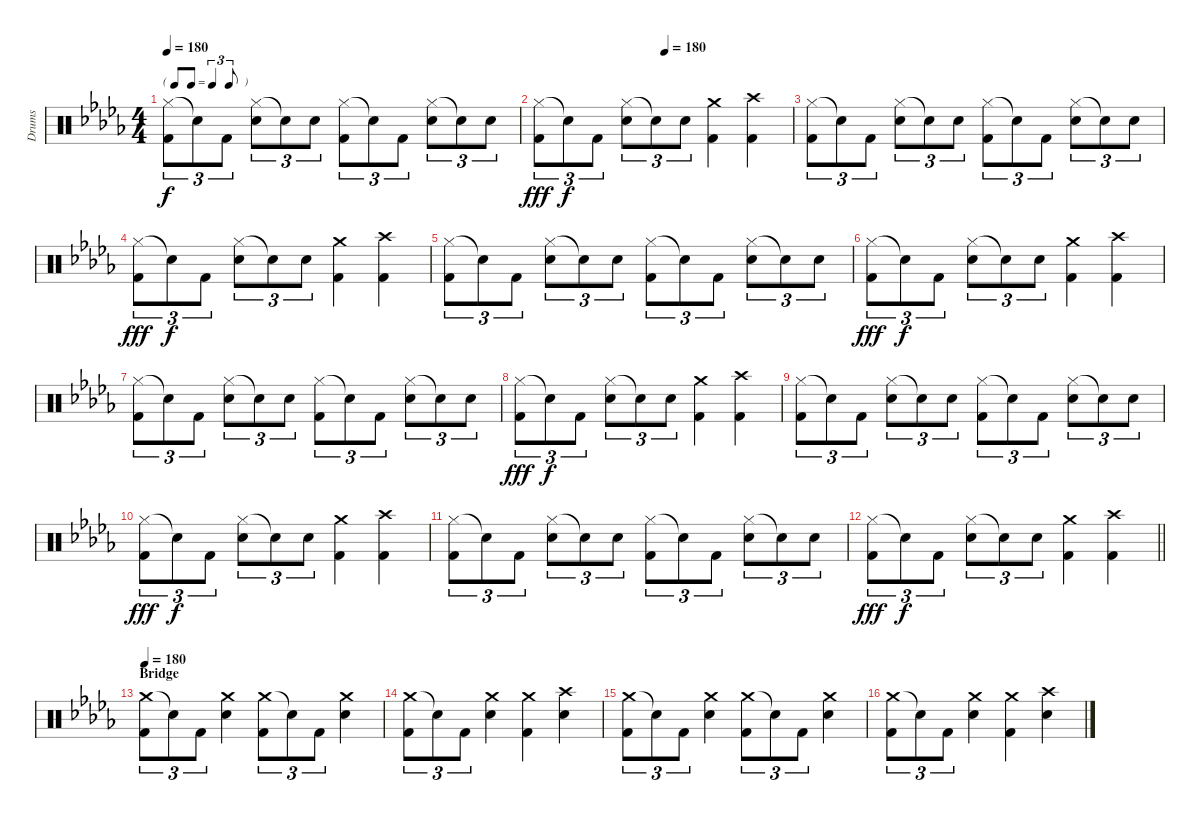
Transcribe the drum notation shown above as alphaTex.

\track ("Drums" "Drums") {instrument percussion}
\staff {score}
\articulation defaults
\ts (4 4)
\tf triplet8th
\tempo 180
\clef neutral
\ks db
("Hi-Hat (closed)" "Kick (hit) 2").8{tu (3 2) dy f} "Snare (hit)"{t}.8{tu (3 2)} "Kick (hit) 2".8{tu (3 2)} ("Hi-Hat (closed)" "Snare (hit) 2").8{tu (3 2)} "Snare (hit)"{t}.8{tu (3 2)} "Snare (hit) 2".8{tu (3 2)} ("Hi-Hat (closed)" "Kick (hit) 2").8{tu (3 2)} "Snare (hit)"{t}.8{tu (3 2)} "Kick (hit) 2".8{tu (3 2)} ("Hi-Hat (closed)" "Snare (hit) 2").8{tu (3 2)} "Snare (hit)"{t}.8{tu (3 2)} "Snare (hit) 2".8{tu (3 2)} |
\tempo (180 0.5)
("Hi-Hat (closed)" "Kick (hit) 2").8{tu (3 2) dy fff} "Snare (hit)"{t}.8{tu (3 2) dy f} "Kick (hit) 2".8{tu (3 2)} ("Hi-Hat (closed)" "Snare (hit) 2").8{tu (3 2)} "Snare (hit)"{t}.8{tu (3 2)} "Snare (hit) 2".8{tu (3 2)} ("Crash medium (hit)" "Kick (hit) 2").4 ("Crash high (hit)" "Kick (hit) 2").4 |
("Hi-Hat (closed)" "Kick (hit) 2").8{tu (3 2)} "Snare (hit)"{t}.8{tu (3 2)} "Kick (hit) 2".8{tu (3 2)} ("Hi-Hat (closed)" "Snare (hit) 2").8{tu (3 2)} "Snare (hit)"{t}.8{tu (3 2)} "Snare (hit) 2".8{tu (3 2)} ("Hi-Hat (closed)" "Kick (hit) 2").8{tu (3 2)} "Snare (hit)"{t}.8{tu (3 2)} "Kick (hit) 2".8{tu (3 2)} ("Hi-Hat (closed)" "Snare (hit) 2").8{tu (3 2)} "Snare (hit)"{t}.8{tu (3 2)} "Snare (hit) 2".8{tu (3 2)} |
("Hi-Hat (closed)" "Kick (hit) 2").8{tu (3 2) dy fff} "Snare (hit)"{t}.8{tu (3 2) dy f} "Kick (hit) 2".8{tu (3 2)} ("Hi-Hat (closed)" "Snare (hit) 2").8{tu (3 2)} "Snare (hit)"{t}.8{tu (3 2)} "Snare (hit) 2".8{tu (3 2)} ("Crash medium (hit)" "Kick (hit) 2").4 ("Crash high (hit)" "Kick (hit) 2").4 |
("Hi-Hat (closed)" "Kick (hit) 2").8{tu (3 2)} "Snare (hit)"{t}.8{tu (3 2)} "Kick (hit) 2".8{tu (3 2)} ("Hi-Hat (closed)" "Snare (hit) 2").8{tu (3 2)} "Snare (hit)"{t}.8{tu (3 2)} "Snare (hit) 2".8{tu (3 2)} ("Hi-Hat (closed)" "Kick (hit) 2").8{tu (3 2)} "Snare (hit)"{t}.8{tu (3 2)} "Kick (hit) 2".8{tu (3 2)} ("Hi-Hat (closed)" "Snare (hit) 2").8{tu (3 2)} "Snare (hit)"{t}.8{tu (3 2)} "Snare (hit) 2".8{tu (3 2)} |
("Hi-Hat (closed)" "Kick (hit) 2").8{tu (3 2) dy fff} "Snare (hit)"{t}.8{tu (3 2) dy f} "Kick (hit) 2".8{tu (3 2)} ("Hi-Hat (closed)" "Snare (hit) 2").8{tu (3 2)} "Snare (hit)"{t}.8{tu (3 2)} "Snare (hit) 2".8{tu (3 2)} ("Crash medium (hit)" "Kick (hit) 2").4 ("Crash high (hit)" "Kick (hit) 2").4 |
("Hi-Hat (closed)" "Kick (hit) 2").8{tu (3 2)} "Snare (hit)"{t}.8{tu (3 2)} "Kick (hit) 2".8{tu (3 2)} ("Hi-Hat (closed)" "Snare (hit) 2").8{tu (3 2)} "Snare (hit)"{t}.8{tu (3 2)} "Snare (hit) 2".8{tu (3 2)} ("Hi-Hat (closed)" "Kick (hit) 2").8{tu (3 2)} "Snare (hit)"{t}.8{tu (3 2)} "Kick (hit) 2".8{tu (3 2)} ("Hi-Hat (closed)" "Snare (hit) 2").8{tu (3 2)} "Snare (hit)"{t}.8{tu (3 2)} "Snare (hit) 2".8{tu (3 2)} |
("Hi-Hat (closed)" "Kick (hit) 2").8{tu (3 2) dy fff} "Snare (hit)"{t}.8{tu (3 2) dy f} "Kick (hit) 2".8{tu (3 2)} ("Hi-Hat (closed)" "Snare (hit) 2").8{tu (3 2)} "Snare (hit)"{t}.8{tu (3 2)} "Snare (hit) 2".8{tu (3 2)} ("Crash medium (hit)" "Kick (hit) 2").4 ("Crash high (hit)" "Kick (hit) 2").4 |
("Hi-Hat (closed)" "Kick (hit) 2").8{tu (3 2)} "Snare (hit)"{t}.8{tu (3 2)} "Kick (hit) 2".8{tu (3 2)} ("Hi-Hat (closed)" "Snare (hit) 2").8{tu (3 2)} "Snare (hit)"{t}.8{tu (3 2)} "Snare (hit) 2".8{tu (3 2)} ("Hi-Hat (closed)" "Kick (hit) 2").8{tu (3 2)} "Snare (hit)"{t}.8{tu (3 2)} "Kick (hit) 2".8{tu (3 2)} ("Hi-Hat (closed)" "Snare (hit) 2").8{tu (3 2)} "Snare (hit)"{t}.8{tu (3 2)} "Snare (hit) 2".8{tu (3 2)} |
("Hi-Hat (closed)" "Kick (hit) 2").8{tu (3 2) dy fff} "Snare (hit)"{t}.8{tu (3 2) dy f} "Kick (hit) 2".8{tu (3 2)} ("Hi-Hat (closed)" "Snare (hit) 2").8{tu (3 2)} "Snare (hit)"{t}.8{tu (3 2)} "Snare (hit) 2".8{tu (3 2)} ("Crash medium (hit)" "Kick (hit) 2").4 ("Crash high (hit)" "Kick (hit) 2").4 |
("Hi-Hat (closed)" "Kick (hit) 2").8{tu (3 2)} "Snare (hit)"{t}.8{tu (3 2)} "Kick (hit) 2".8{tu (3 2)} ("Hi-Hat (closed)" "Snare (hit) 2").8{tu (3 2)} "Snare (hit)"{t}.8{tu (3 2)} "Snare (hit) 2".8{tu (3 2)} ("Hi-Hat (closed)" "Kick (hit) 2").8{tu (3 2)} "Snare (hit)"{t}.8{tu (3 2)} "Kick (hit) 2".8{tu (3 2)} ("Hi-Hat (closed)" "Snare (hit) 2").8{tu (3 2)} "Snare (hit)"{t}.8{tu (3 2)} "Snare (hit) 2".8{tu (3 2)} |
\barLineRight lightlight
("Hi-Hat (closed)" "Kick (hit) 2").8{tu (3 2) dy fff} "Snare (hit)"{t}.8{tu (3 2) dy f} "Kick (hit) 2".8{tu (3 2)} ("Hi-Hat (closed)" "Snare (hit) 2").8{tu (3 2)} "Snare (hit)"{t}.8{tu (3 2)} "Snare (hit) 2".8{tu (3 2)} ("Crash medium (hit)" "Kick (hit) 2").4 ("Crash high (hit)" "Kick (hit) 2").4 |
\section ("" "Bridge")
\tempo 180
("Crash medium (hit)" "Kick (hit) 2").8{tu (3 2)} "Snare (hit)"{t}.8{tu (3 2)} "Kick (hit) 2".8{tu (3 2)} ("Crash medium (hit)" "Snare (hit) 2").4 ("Crash medium (hit)" "Kick (hit) 2").8{tu (3 2)} "Snare (hit)"{t}.8{tu (3 2)} "Kick (hit) 2".8{tu (3 2)} ("Crash medium (hit)" "Snare (hit) 2").4 |
("Crash medium (hit)" "Kick (hit) 2").8{tu (3 2)} "Snare (hit)"{t}.8{tu (3 2)} "Kick (hit) 2".8{tu (3 2)} ("Crash medium (hit)" "Snare (hit) 2").4 ("Crash medium (hit)" "Kick (hit) 2").4 ("Crash high (hit)" "Snare (hit) 2").4 |
("Crash medium (hit)" "Kick (hit) 2").8{tu (3 2)} "Snare (hit)"{t}.8{tu (3 2)} "Kick (hit) 2".8{tu (3 2)} ("Crash medium (hit)" "Snare (hit) 2").4 ("Crash medium (hit)" "Kick (hit) 2").8{tu (3 2)} "Snare (hit)"{t}.8{tu (3 2)} "Kick (hit) 2".8{tu (3 2)} ("Crash medium (hit)" "Snare (hit) 2").4 |
("Crash medium (hit)" "Kick (hit) 2").8{tu (3 2)} "Snare (hit)"{t}.8{tu (3 2)} "Kick (hit) 2".8{tu (3 2)} ("Crash medium (hit)" "Snare (hit) 2").4 ("Crash medium (hit)" "Kick (hit) 2").4 ("Crash high (hit)" "Snare (hit) 2").4
